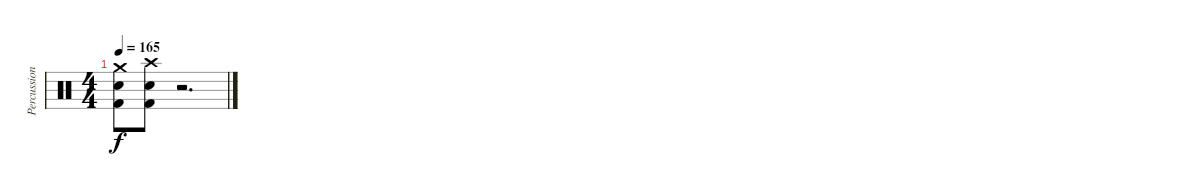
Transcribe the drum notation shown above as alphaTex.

\track ("Percussion" "Percussion") {instrument percussion}
\staff {score}
\articulation defaults
\ts (4 4)
\tempo 165
\clef neutral
\ks c
("Crash medium (hit)" "Kick (hit) 2" "Snare (hit) 2").8{dy f} ("Crash high (hit)" "Kick (hit) 2" "Snare (hit) 2").8 r.2{d}
